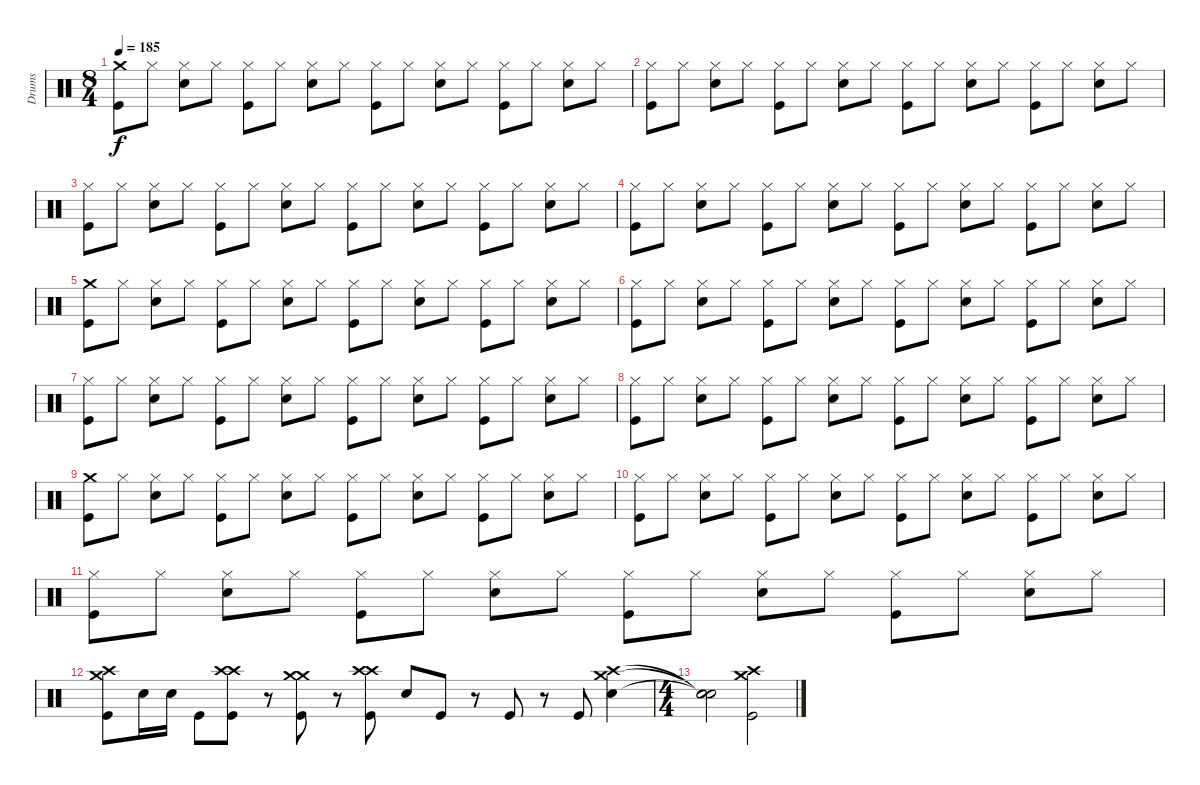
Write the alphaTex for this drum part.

\track ("Drums" "Drums") {instrument percussion}
\staff {score}
\articulation defaults
\ts (8 4)
\tempo 185
\clef neutral
\ks c
("Crash medium (hit)" "Kick (hit)").8{dy f} "Hi-Hat (closed)".8 ("Hi-Hat (closed)" "Snare (hit) 2").8 "Hi-Hat (closed)".8 ("Hi-Hat (closed)" "Kick (hit)").8 "Hi-Hat (closed)".8 ("Hi-Hat (closed)" "Snare (hit) 2").8 "Hi-Hat (closed)".8 ("Hi-Hat (closed)" "Kick (hit)").8 "Hi-Hat (closed)".8 ("Hi-Hat (closed)" "Snare (hit) 2").8 "Hi-Hat (closed)".8 ("Hi-Hat (closed)" "Kick (hit)").8 "Hi-Hat (closed)".8 ("Hi-Hat (closed)" "Snare (hit) 2").8 "Hi-Hat (closed)".8 |
("Hi-Hat (closed)" "Kick (hit)").8 "Hi-Hat (closed)".8 ("Hi-Hat (closed)" "Snare (hit) 2").8 "Hi-Hat (closed)".8 ("Hi-Hat (closed)" "Kick (hit)").8 "Hi-Hat (closed)".8 ("Hi-Hat (closed)" "Snare (hit) 2").8 "Hi-Hat (closed)".8 ("Hi-Hat (closed)" "Kick (hit)").8 "Hi-Hat (closed)".8 ("Hi-Hat (closed)" "Snare (hit) 2").8 "Hi-Hat (closed)".8 ("Hi-Hat (closed)" "Kick (hit)").8 "Hi-Hat (closed)".8 ("Hi-Hat (closed)" "Snare (hit) 2").8 "Hi-Hat (closed)".8 |
("Hi-Hat (closed)" "Kick (hit)").8 "Hi-Hat (closed)".8 ("Hi-Hat (closed)" "Snare (hit) 2").8 "Hi-Hat (closed)".8 ("Hi-Hat (closed)" "Kick (hit)").8 "Hi-Hat (closed)".8 ("Hi-Hat (closed)" "Snare (hit) 2").8 "Hi-Hat (closed)".8 ("Hi-Hat (closed)" "Kick (hit)").8 "Hi-Hat (closed)".8 ("Hi-Hat (closed)" "Snare (hit) 2").8 "Hi-Hat (closed)".8 ("Hi-Hat (closed)" "Kick (hit)").8 "Hi-Hat (closed)".8 ("Hi-Hat (closed)" "Snare (hit) 2").8 "Hi-Hat (closed)".8 |
("Hi-Hat (closed)" "Kick (hit)").8 "Hi-Hat (closed)".8 ("Hi-Hat (closed)" "Snare (hit) 2").8 "Hi-Hat (closed)".8 ("Hi-Hat (closed)" "Kick (hit)").8 "Hi-Hat (closed)".8 ("Hi-Hat (closed)" "Snare (hit) 2").8 "Hi-Hat (closed)".8 ("Hi-Hat (closed)" "Kick (hit)").8 "Hi-Hat (closed)".8 ("Hi-Hat (closed)" "Snare (hit) 2").8 "Hi-Hat (closed)".8 ("Hi-Hat (closed)" "Kick (hit)").8 "Hi-Hat (closed)".8 ("Hi-Hat (closed)" "Snare (hit) 2").8 "Hi-Hat (closed)".8 |
("Crash medium (hit)" "Kick (hit)").8 "Hi-Hat (closed)".8 ("Hi-Hat (closed)" "Snare (hit) 2").8 "Hi-Hat (closed)".8 ("Hi-Hat (closed)" "Kick (hit)").8 "Hi-Hat (closed)".8 ("Hi-Hat (closed)" "Snare (hit) 2").8 "Hi-Hat (closed)".8 ("Hi-Hat (closed)" "Kick (hit)").8 "Hi-Hat (closed)".8 ("Hi-Hat (closed)" "Snare (hit) 2").8 "Hi-Hat (closed)".8 ("Hi-Hat (closed)" "Kick (hit)").8 "Hi-Hat (closed)".8 ("Hi-Hat (closed)" "Snare (hit) 2").8 "Hi-Hat (closed)".8 |
("Hi-Hat (closed)" "Kick (hit)").8 "Hi-Hat (closed)".8 ("Hi-Hat (closed)" "Snare (hit) 2").8 "Hi-Hat (closed)".8 ("Hi-Hat (closed)" "Kick (hit)").8 "Hi-Hat (closed)".8 ("Hi-Hat (closed)" "Snare (hit) 2").8 "Hi-Hat (closed)".8 ("Hi-Hat (closed)" "Kick (hit)").8 "Hi-Hat (closed)".8 ("Hi-Hat (closed)" "Snare (hit) 2").8 "Hi-Hat (closed)".8 ("Hi-Hat (closed)" "Kick (hit)").8 "Hi-Hat (closed)".8 ("Hi-Hat (closed)" "Snare (hit) 2").8 "Hi-Hat (closed)".8 |
("Hi-Hat (closed)" "Kick (hit)").8 "Hi-Hat (closed)".8 ("Hi-Hat (closed)" "Snare (hit) 2").8 "Hi-Hat (closed)".8 ("Hi-Hat (closed)" "Kick (hit)").8 "Hi-Hat (closed)".8 ("Hi-Hat (closed)" "Snare (hit) 2").8 "Hi-Hat (closed)".8 ("Hi-Hat (closed)" "Kick (hit)").8 "Hi-Hat (closed)".8 ("Hi-Hat (closed)" "Snare (hit) 2").8 "Hi-Hat (closed)".8 ("Hi-Hat (closed)" "Kick (hit)").8 "Hi-Hat (closed)".8 ("Hi-Hat (closed)" "Snare (hit) 2").8 "Hi-Hat (closed)".8 |
("Hi-Hat (closed)" "Kick (hit)").8 "Hi-Hat (closed)".8 ("Hi-Hat (closed)" "Snare (hit) 2").8 "Hi-Hat (closed)".8 ("Hi-Hat (closed)" "Kick (hit)").8 "Hi-Hat (closed)".8 ("Hi-Hat (closed)" "Snare (hit) 2").8 "Hi-Hat (closed)".8 ("Hi-Hat (closed)" "Kick (hit)").8 "Hi-Hat (closed)".8 ("Hi-Hat (closed)" "Snare (hit) 2").8 "Hi-Hat (closed)".8 ("Hi-Hat (closed)" "Kick (hit)").8 "Hi-Hat (closed)".8 ("Hi-Hat (closed)" "Snare (hit) 2").8 "Hi-Hat (closed)".8 |
("Crash medium (hit)" "Kick (hit)").8 "Hi-Hat (closed)".8 ("Hi-Hat (closed)" "Snare (hit) 2").8 "Hi-Hat (closed)".8 ("Hi-Hat (closed)" "Kick (hit)").8 "Hi-Hat (closed)".8 ("Hi-Hat (closed)" "Snare (hit) 2").8 "Hi-Hat (closed)".8 ("Hi-Hat (closed)" "Kick (hit)").8 "Hi-Hat (closed)".8 ("Hi-Hat (closed)" "Snare (hit) 2").8 "Hi-Hat (closed)".8 ("Hi-Hat (closed)" "Kick (hit)").8 "Hi-Hat (closed)".8 ("Hi-Hat (closed)" "Snare (hit) 2").8 "Hi-Hat (closed)".8 |
("Hi-Hat (closed)" "Kick (hit)").8 "Hi-Hat (closed)".8 ("Hi-Hat (closed)" "Snare (hit) 2").8 "Hi-Hat (closed)".8 ("Hi-Hat (closed)" "Kick (hit)").8 "Hi-Hat (closed)".8 ("Hi-Hat (closed)" "Snare (hit) 2").8 "Hi-Hat (closed)".8 ("Hi-Hat (closed)" "Kick (hit)").8 "Hi-Hat (closed)".8 ("Hi-Hat (closed)" "Snare (hit) 2").8 "Hi-Hat (closed)".8 ("Hi-Hat (closed)" "Kick (hit)").8 "Hi-Hat (closed)".8 ("Hi-Hat (closed)" "Snare (hit) 2").8 "Hi-Hat (closed)".8 |
("Hi-Hat (closed)" "Kick (hit)").8 "Hi-Hat (closed)".8 ("Hi-Hat (closed)" "Snare (hit) 2").8 "Hi-Hat (closed)".8 ("Hi-Hat (closed)" "Kick (hit)").8 "Hi-Hat (closed)".8 ("Hi-Hat (closed)" "Snare (hit) 2").8 "Hi-Hat (closed)".8 ("Hi-Hat (closed)" "Kick (hit)").8 "Hi-Hat (closed)".8 ("Hi-Hat (closed)" "Snare (hit) 2").8 "Hi-Hat (closed)".8 ("Hi-Hat (closed)" "Kick (hit)").8 "Hi-Hat (closed)".8 ("Hi-Hat (closed)" "Snare (hit) 2").8 "Hi-Hat (closed)".8 |
("Crash medium (hit)" "Crash high (hit)" "Kick (hit)").8 "Snare (hit) 2".16 "Snare (hit) 2".16 "Kick (hit)".8 ("Crash high (hit)" "Crash high (hit)" "Kick (hit)").8 r.8 ("Crash medium (hit)" "Crash medium (hit)" "Kick (hit)").8 r.8 ("Crash high (hit)" "Crash high (hit)" "Kick (hit)").8 "Snare (hit) 2".8 "Kick (hit)".8 r.8 "Kick (hit)".8 r.8 "Kick (hit)".8 ("Crash medium (hit)" "Crash high (hit)" "Snare (hit) 2").4 |
\ts (4 4)
("Snare (hit)"{t} "Snare (hit)"{t} "Snare (hit)"{t}).2 ("Crash medium (hit)" "Crash high (hit)" "Kick (hit)").2
